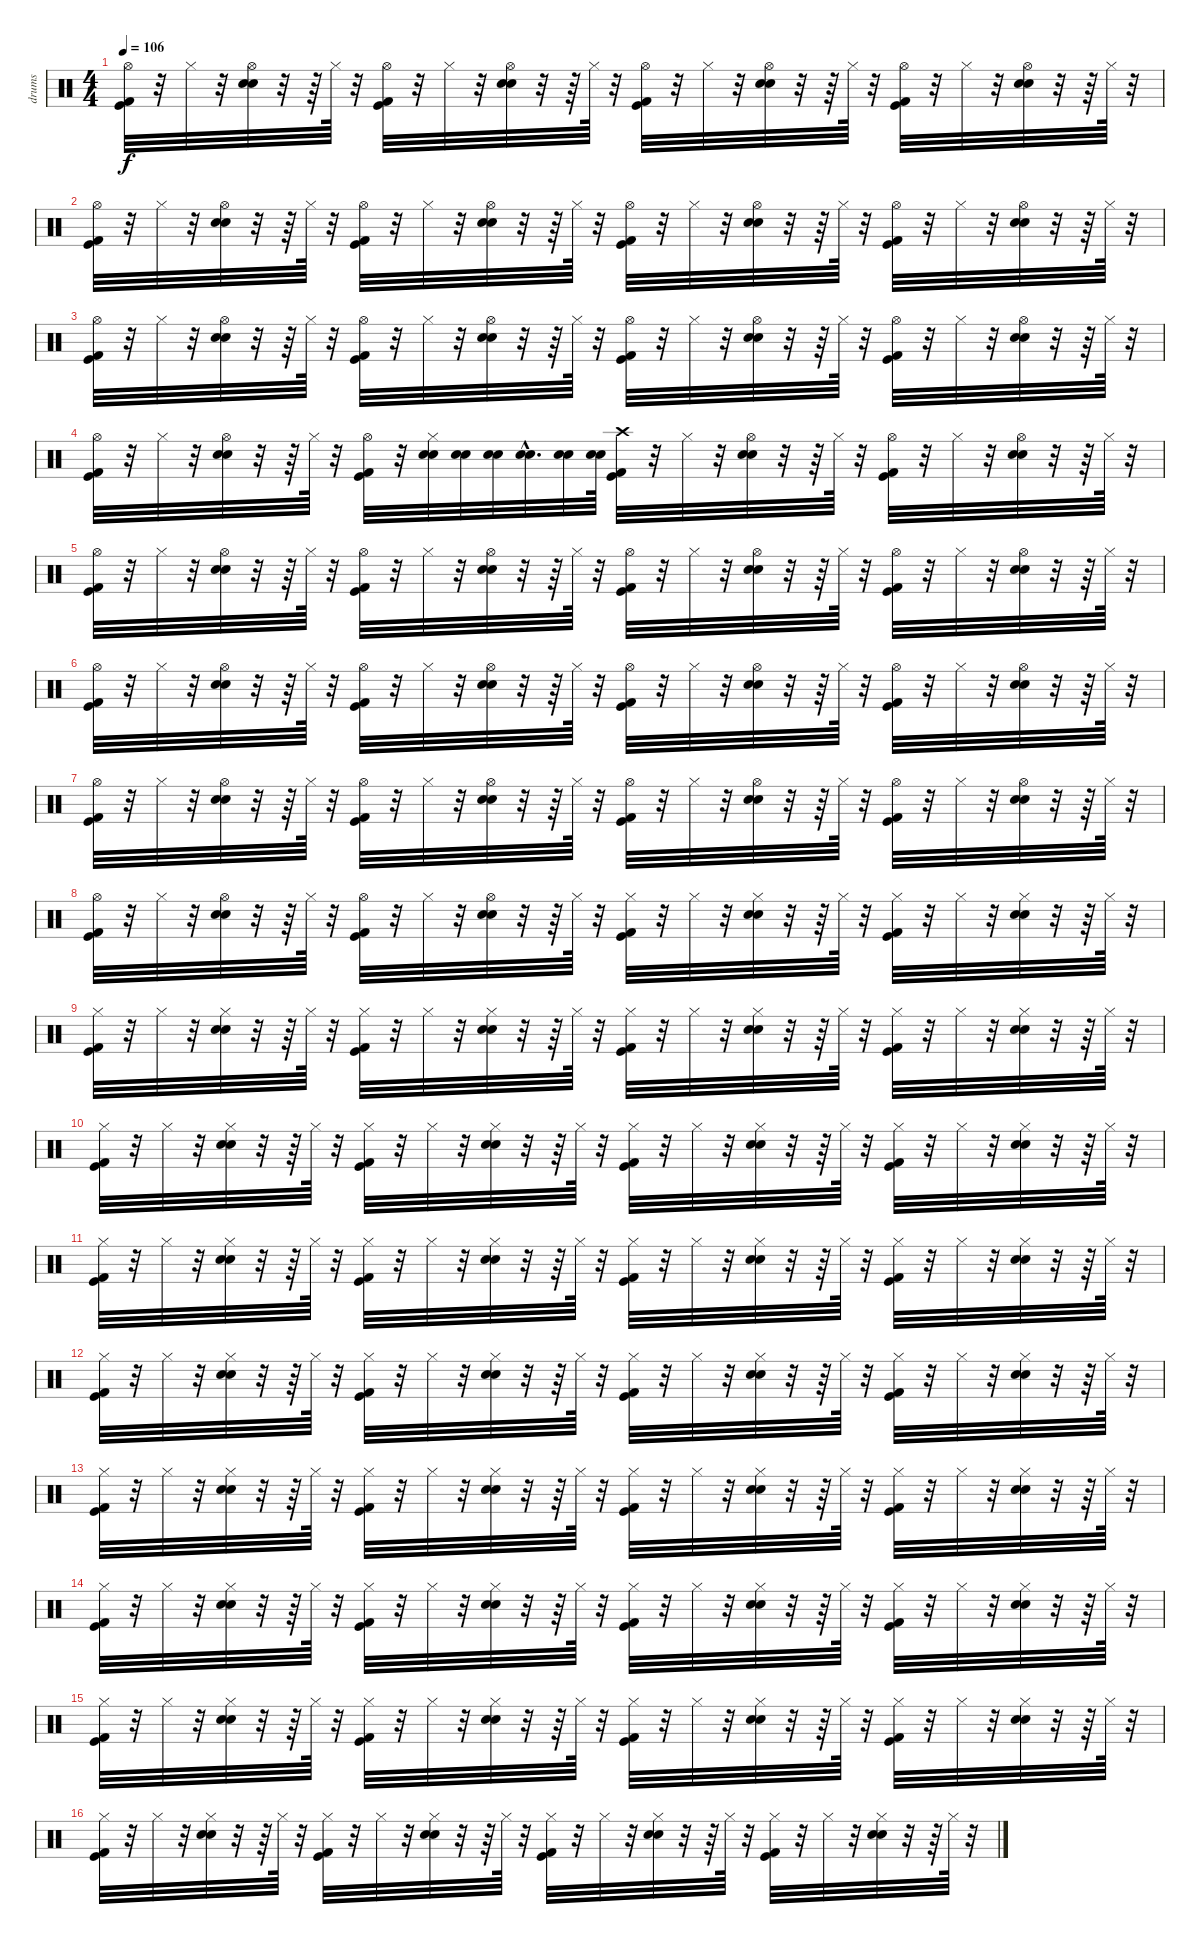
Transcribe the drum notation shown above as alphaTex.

\track ("drums" "drums") {instrument percussion}
\staff {score}
\articulation defaults
\ts (4 4)
\tempo 106
\clef neutral
\ks c
("Kick (hit) 2" "Kick (hit)" "Hi-Hat (open)").32{dy f} r.32 "Hi-Hat (closed)".32 r.32 ("Electric Snare (hit)" "Snare (hit) 2" "Hi-Hat (open)").32 r.32 r.64 "Hi-Hat (closed)".64 r.32 ("Kick (hit) 2" "Kick (hit)" "Hi-Hat (open)").32 r.32 "Hi-Hat (closed)".32 r.32 ("Electric Snare (hit)" "Snare (hit) 2" "Hi-Hat (open)").32 r.32 r.64 "Hi-Hat (closed)".64 r.32 ("Hi-Hat (open)" "Kick (hit)" "Kick (hit) 2").32 r.32 "Hi-Hat (closed)".32 r.32 ("Electric Snare (hit)" "Snare (hit) 2" "Hi-Hat (open)").32 r.32 r.64 "Hi-Hat (closed)".64 r.32 ("Kick (hit) 2" "Kick (hit)" "Hi-Hat (open)").32 r.32 "Hi-Hat (closed)".32 r.32 ("Electric Snare (hit)" "Snare (hit) 2" "Hi-Hat (open)").32 r.32 r.64 "Hi-Hat (closed)".64 r.32 |
("Kick (hit) 2" "Kick (hit)" "Hi-Hat (open)").32 r.32 "Hi-Hat (closed)".32 r.32 ("Electric Snare (hit)" "Snare (hit) 2" "Hi-Hat (open)").32 r.32 r.64 "Hi-Hat (closed)".64 r.32 ("Kick (hit) 2" "Kick (hit)" "Hi-Hat (open)").32 r.32 "Hi-Hat (closed)".32 r.32 ("Electric Snare (hit)" "Snare (hit) 2" "Hi-Hat (open)").32 r.32 r.64 "Hi-Hat (closed)".64 r.32 ("Hi-Hat (open)" "Kick (hit)" "Kick (hit) 2").32 r.32 "Hi-Hat (closed)".32 r.32 ("Electric Snare (hit)" "Snare (hit) 2" "Hi-Hat (open)").32 r.32 r.64 "Hi-Hat (closed)".64 r.32 ("Kick (hit) 2" "Kick (hit)" "Hi-Hat (open)").32 r.32 "Hi-Hat (closed)".32 r.32 ("Electric Snare (hit)" "Snare (hit) 2" "Hi-Hat (open)").32 r.32 r.64 "Hi-Hat (closed)".64 r.32 |
("Kick (hit) 2" "Kick (hit)" "Hi-Hat (open)").32 r.32 "Hi-Hat (closed)".32 r.32 ("Electric Snare (hit)" "Snare (hit) 2" "Hi-Hat (open)").32 r.32 r.64 "Hi-Hat (closed)".64 r.32 ("Kick (hit) 2" "Kick (hit)" "Hi-Hat (open)").32 r.32 "Hi-Hat (closed)".32 r.32 ("Electric Snare (hit)" "Snare (hit) 2" "Hi-Hat (open)").32 r.32 r.64 "Hi-Hat (closed)".64 r.32 ("Hi-Hat (open)" "Kick (hit)" "Kick (hit) 2").32 r.32 "Hi-Hat (closed)".32 r.32 ("Electric Snare (hit)" "Snare (hit) 2" "Hi-Hat (open)").32 r.32 r.64 "Hi-Hat (closed)".64 r.32 ("Kick (hit) 2" "Kick (hit)" "Hi-Hat (open)").32 r.32 "Hi-Hat (closed)".32 r.32 ("Electric Snare (hit)" "Snare (hit) 2" "Hi-Hat (open)").32 r.32 r.64 "Hi-Hat (closed)".64 r.32 |
("Kick (hit) 2" "Kick (hit)" "Hi-Hat (open)").32 r.32 "Hi-Hat (closed)".32 r.32 ("Electric Snare (hit)" "Snare (hit) 2" "Hi-Hat (open)").32 r.32 r.64 "Hi-Hat (closed)".64 r.32 ("Kick (hit) 2" "Kick (hit)" "Hi-Hat (open)").32 r.32 ("Hi-Hat (closed)" "Snare (hit) 2" "Electric Snare (hit)").32 ("Electric Snare (hit)" "Snare (hit) 2").32 ("Electric Snare (hit)" "Snare (hit) 2").32 ("Snare (hit) 2"{hac} "Electric Snare (hit)"{hac}).32{d} ("Electric Snare (hit)" "Snare (hit) 2").32 ("Electric Snare (hit)" "Snare (hit) 2").64 ("Kick (hit)" "Kick (hit) 2" "Crash high (hit)").32 r.32 "Hi-Hat (closed)".32 r.32 ("Electric Snare (hit)" "Snare (hit) 2" "Hi-Hat (open)").32 r.32 r.64 "Hi-Hat (closed)".64 r.32 ("Kick (hit) 2" "Kick (hit)" "Hi-Hat (open)").32 r.32 "Hi-Hat (closed)".32 r.32 ("Electric Snare (hit)" "Snare (hit) 2" "Hi-Hat (open)").32 r.32 r.64 "Hi-Hat (closed)".64 r.32 |
("Kick (hit) 2" "Kick (hit)" "Hi-Hat (open)").32 r.32 "Hi-Hat (closed)".32 r.32 ("Electric Snare (hit)" "Snare (hit) 2" "Hi-Hat (open)").32 r.32 r.64 "Hi-Hat (closed)".64 r.32 ("Kick (hit) 2" "Kick (hit)" "Hi-Hat (open)").32 r.32 "Hi-Hat (closed)".32 r.32 ("Electric Snare (hit)" "Snare (hit) 2" "Hi-Hat (open)").32 r.32 r.64 "Hi-Hat (closed)".64 r.32 ("Hi-Hat (open)" "Kick (hit)" "Kick (hit) 2").32 r.32 "Hi-Hat (closed)".32 r.32 ("Electric Snare (hit)" "Snare (hit) 2" "Hi-Hat (open)").32 r.32 r.64 "Hi-Hat (closed)".64 r.32 ("Kick (hit) 2" "Kick (hit)" "Hi-Hat (open)").32 r.32 "Hi-Hat (closed)".32 r.32 ("Electric Snare (hit)" "Snare (hit) 2" "Hi-Hat (open)").32 r.32 r.64 "Hi-Hat (closed)".64 r.32 |
("Kick (hit) 2" "Kick (hit)" "Hi-Hat (open)").32 r.32 "Hi-Hat (closed)".32 r.32 ("Electric Snare (hit)" "Snare (hit) 2" "Hi-Hat (open)").32 r.32 r.64 "Hi-Hat (closed)".64 r.32 ("Kick (hit) 2" "Kick (hit)" "Hi-Hat (open)").32 r.32 "Hi-Hat (closed)".32 r.32 ("Electric Snare (hit)" "Snare (hit) 2" "Hi-Hat (open)").32 r.32 r.64 "Hi-Hat (closed)".64 r.32 ("Hi-Hat (open)" "Kick (hit)" "Kick (hit) 2").32 r.32 "Hi-Hat (closed)".32 r.32 ("Electric Snare (hit)" "Snare (hit) 2" "Hi-Hat (open)").32 r.32 r.64 "Hi-Hat (closed)".64 r.32 ("Kick (hit) 2" "Kick (hit)" "Hi-Hat (open)").32 r.32 "Hi-Hat (closed)".32 r.32 ("Electric Snare (hit)" "Snare (hit) 2" "Hi-Hat (open)").32 r.32 r.64 "Hi-Hat (closed)".64 r.32 |
("Kick (hit) 2" "Kick (hit)" "Hi-Hat (open)").32 r.32 "Hi-Hat (closed)".32 r.32 ("Electric Snare (hit)" "Snare (hit) 2" "Hi-Hat (open)").32 r.32 r.64 "Hi-Hat (closed)".64 r.32 ("Kick (hit) 2" "Kick (hit)" "Hi-Hat (open)").32 r.32 "Hi-Hat (closed)".32 r.32 ("Electric Snare (hit)" "Snare (hit) 2" "Hi-Hat (open)").32 r.32 r.64 "Hi-Hat (closed)".64 r.32 ("Hi-Hat (open)" "Kick (hit)" "Kick (hit) 2").32 r.32 "Hi-Hat (closed)".32 r.32 ("Electric Snare (hit)" "Snare (hit) 2" "Hi-Hat (open)").32 r.32 r.64 "Hi-Hat (closed)".64 r.32 ("Kick (hit) 2" "Kick (hit)" "Hi-Hat (open)").32 r.32 "Hi-Hat (closed)".32 r.32 ("Electric Snare (hit)" "Snare (hit) 2" "Hi-Hat (open)").32 r.32 r.64 "Hi-Hat (closed)".64 r.32 |
("Kick (hit) 2" "Kick (hit)" "Hi-Hat (open)").32 r.32 "Hi-Hat (closed)".32 r.32 ("Electric Snare (hit)" "Snare (hit) 2" "Hi-Hat (open)").32 r.32 r.64 "Hi-Hat (closed)".64 r.32 ("Kick (hit) 2" "Kick (hit)" "Hi-Hat (open)").32 r.32 "Hi-Hat (closed)".32 r.32 ("Electric Snare (hit)" "Snare (hit) 2" "Hi-Hat (open)").32 r.32 r.64 "Hi-Hat (closed)".64 r.32 ("Kick (hit) 2" "Kick (hit)" "Hi-Hat (closed)").32 r.32 "Hi-Hat (closed)".32 r.32 ("Electric Snare (hit)" "Snare (hit) 2" "Hi-Hat (closed)").32 r.32 r.64 "Hi-Hat (closed)".64 r.32 ("Kick (hit) 2" "Kick (hit)" "Hi-Hat (closed)").32 r.32 "Hi-Hat (closed)".32 r.32 ("Electric Snare (hit)" "Snare (hit) 2" "Hi-Hat (closed)").32 r.32 r.64 "Hi-Hat (closed)".64 r.32 |
("Kick (hit) 2" "Kick (hit)" "Hi-Hat (closed)").32 r.32 "Hi-Hat (closed)".32 r.32 ("Electric Snare (hit)" "Snare (hit) 2" "Hi-Hat (closed)").32 r.32 r.64 "Hi-Hat (closed)".64 r.32 ("Kick (hit) 2" "Kick (hit)" "Hi-Hat (closed)").32 r.32 "Hi-Hat (closed)".32 r.32 ("Electric Snare (hit)" "Snare (hit) 2" "Hi-Hat (closed)").32 r.32 r.64 "Hi-Hat (closed)".64 r.32 ("Kick (hit) 2" "Kick (hit)" "Hi-Hat (closed)").32 r.32 "Hi-Hat (closed)".32 r.32 ("Electric Snare (hit)" "Snare (hit) 2" "Hi-Hat (closed)").32 r.32 r.64 "Hi-Hat (closed)".64 r.32 ("Kick (hit) 2" "Kick (hit)" "Hi-Hat (closed)").32 r.32 "Hi-Hat (closed)".32 r.32 ("Electric Snare (hit)" "Snare (hit) 2" "Hi-Hat (closed)").32 r.32 r.64 "Hi-Hat (closed)".64 r.32 |
("Kick (hit) 2" "Kick (hit)" "Hi-Hat (closed)").32 r.32 "Hi-Hat (closed)".32 r.32 ("Electric Snare (hit)" "Snare (hit) 2" "Hi-Hat (closed)").32 r.32 r.64 "Hi-Hat (closed)".64 r.32 ("Kick (hit) 2" "Kick (hit)" "Hi-Hat (closed)").32 r.32 "Hi-Hat (closed)".32 r.32 ("Electric Snare (hit)" "Snare (hit) 2" "Hi-Hat (closed)").32 r.32 r.64 "Hi-Hat (closed)".64 r.32 ("Kick (hit) 2" "Kick (hit)" "Hi-Hat (closed)").32 r.32 "Hi-Hat (closed)".32 r.32 ("Electric Snare (hit)" "Snare (hit) 2" "Hi-Hat (closed)").32 r.32 r.64 "Hi-Hat (closed)".64 r.32 ("Kick (hit) 2" "Kick (hit)" "Hi-Hat (closed)").32 r.32 "Hi-Hat (closed)".32 r.32 ("Electric Snare (hit)" "Snare (hit) 2" "Hi-Hat (closed)").32 r.32 r.64 "Hi-Hat (closed)".64 r.32 |
("Kick (hit) 2" "Kick (hit)" "Hi-Hat (closed)").32 r.32 "Hi-Hat (closed)".32 r.32 ("Electric Snare (hit)" "Snare (hit) 2" "Hi-Hat (closed)").32 r.32 r.64 "Hi-Hat (closed)".64 r.32 ("Kick (hit) 2" "Kick (hit)" "Hi-Hat (closed)").32 r.32 "Hi-Hat (closed)".32 r.32 ("Electric Snare (hit)" "Snare (hit) 2" "Hi-Hat (closed)").32 r.32 r.64 "Hi-Hat (closed)".64 r.32 ("Kick (hit) 2" "Kick (hit)" "Hi-Hat (closed)").32 r.32 "Hi-Hat (closed)".32 r.32 ("Electric Snare (hit)" "Snare (hit) 2" "Hi-Hat (closed)").32 r.32 r.64 "Hi-Hat (closed)".64 r.32 ("Kick (hit) 2" "Kick (hit)" "Hi-Hat (closed)").32 r.32 "Hi-Hat (closed)".32 r.32 ("Electric Snare (hit)" "Snare (hit) 2" "Hi-Hat (closed)").32 r.32 r.64 "Hi-Hat (closed)".64 r.32 |
("Kick (hit) 2" "Kick (hit)" "Hi-Hat (closed)").32 r.32 "Hi-Hat (closed)".32 r.32 ("Electric Snare (hit)" "Snare (hit) 2" "Hi-Hat (closed)").32 r.32 r.64 "Hi-Hat (closed)".64 r.32 ("Kick (hit) 2" "Kick (hit)" "Hi-Hat (closed)").32 r.32 "Hi-Hat (closed)".32 r.32 ("Electric Snare (hit)" "Snare (hit) 2" "Hi-Hat (closed)").32 r.32 r.64 "Hi-Hat (closed)".64 r.32 ("Kick (hit) 2" "Kick (hit)" "Hi-Hat (closed)").32 r.32 "Hi-Hat (closed)".32 r.32 ("Electric Snare (hit)" "Snare (hit) 2" "Hi-Hat (closed)").32 r.32 r.64 "Hi-Hat (closed)".64 r.32 ("Kick (hit) 2" "Kick (hit)" "Hi-Hat (closed)").32 r.32 "Hi-Hat (closed)".32 r.32 ("Electric Snare (hit)" "Snare (hit) 2" "Hi-Hat (closed)").32 r.32 r.64 "Hi-Hat (closed)".64 r.32 |
("Kick (hit) 2" "Kick (hit)" "Hi-Hat (closed)").32 r.32 "Hi-Hat (closed)".32 r.32 ("Electric Snare (hit)" "Snare (hit) 2" "Hi-Hat (closed)").32 r.32 r.64 "Hi-Hat (closed)".64 r.32 ("Kick (hit) 2" "Kick (hit)" "Hi-Hat (closed)").32 r.32 "Hi-Hat (closed)".32 r.32 ("Electric Snare (hit)" "Snare (hit) 2" "Hi-Hat (closed)").32 r.32 r.64 "Hi-Hat (closed)".64 r.32 ("Kick (hit) 2" "Kick (hit)" "Hi-Hat (closed)").32 r.32 "Hi-Hat (closed)".32 r.32 ("Electric Snare (hit)" "Snare (hit) 2" "Hi-Hat (closed)").32 r.32 r.64 "Hi-Hat (closed)".64 r.32 ("Kick (hit) 2" "Kick (hit)" "Hi-Hat (closed)").32 r.32 "Hi-Hat (closed)".32 r.32 ("Electric Snare (hit)" "Snare (hit) 2" "Hi-Hat (closed)").32 r.32 r.64 "Hi-Hat (closed)".64 r.32 |
("Kick (hit) 2" "Kick (hit)" "Hi-Hat (closed)").32 r.32 "Hi-Hat (closed)".32 r.32 ("Electric Snare (hit)" "Snare (hit) 2" "Hi-Hat (closed)").32 r.32 r.64 "Hi-Hat (closed)".64 r.32 ("Kick (hit) 2" "Kick (hit)" "Hi-Hat (closed)").32 r.32 "Hi-Hat (closed)".32 r.32 ("Electric Snare (hit)" "Snare (hit) 2" "Hi-Hat (closed)").32 r.32 r.64 "Hi-Hat (closed)".64 r.32 ("Kick (hit) 2" "Kick (hit)" "Hi-Hat (closed)").32 r.32 "Hi-Hat (closed)".32 r.32 ("Electric Snare (hit)" "Snare (hit) 2" "Hi-Hat (closed)").32 r.32 r.64 "Hi-Hat (closed)".64 r.32 ("Kick (hit) 2" "Kick (hit)" "Hi-Hat (closed)").32 r.32 "Hi-Hat (closed)".32 r.32 ("Electric Snare (hit)" "Snare (hit) 2" "Hi-Hat (closed)").32 r.32 r.64 "Hi-Hat (closed)".64 r.32 |
("Kick (hit) 2" "Kick (hit)" "Hi-Hat (closed)").32 r.32 "Hi-Hat (closed)".32 r.32 ("Electric Snare (hit)" "Snare (hit) 2" "Hi-Hat (closed)").32 r.32 r.64 "Hi-Hat (closed)".64 r.32 ("Kick (hit) 2" "Kick (hit)" "Hi-Hat (closed)").32 r.32 "Hi-Hat (closed)".32 r.32 ("Electric Snare (hit)" "Snare (hit) 2" "Hi-Hat (closed)").32 r.32 r.64 "Hi-Hat (closed)".64 r.32 ("Kick (hit) 2" "Kick (hit)" "Hi-Hat (closed)").32 r.32 "Hi-Hat (closed)".32 r.32 ("Electric Snare (hit)" "Snare (hit) 2" "Hi-Hat (closed)").32 r.32 r.64 "Hi-Hat (closed)".64 r.32 ("Kick (hit) 2" "Kick (hit)" "Hi-Hat (closed)").32 r.32 "Hi-Hat (closed)".32 r.32 ("Electric Snare (hit)" "Snare (hit) 2" "Hi-Hat (closed)").32 r.32 r.64 "Hi-Hat (closed)".64 r.32 |
("Kick (hit) 2" "Kick (hit)" "Hi-Hat (closed)").32 r.32 "Hi-Hat (closed)".32 r.32 ("Electric Snare (hit)" "Snare (hit) 2" "Hi-Hat (closed)").32 r.32 r.64 "Hi-Hat (closed)".64 r.32 ("Kick (hit) 2" "Kick (hit)" "Hi-Hat (closed)").32 r.32 "Hi-Hat (closed)".32 r.32 ("Electric Snare (hit)" "Snare (hit) 2" "Hi-Hat (closed)").32 r.32 r.64 "Hi-Hat (closed)".64 r.32 ("Kick (hit) 2" "Kick (hit)" "Hi-Hat (closed)").32 r.32 "Hi-Hat (closed)".32 r.32 ("Electric Snare (hit)" "Snare (hit) 2" "Hi-Hat (closed)").32 r.32 r.64 "Hi-Hat (closed)".64 r.32 ("Kick (hit) 2" "Kick (hit)" "Hi-Hat (closed)").32 r.32 "Hi-Hat (closed)".32 r.32 ("Electric Snare (hit)" "Snare (hit) 2" "Hi-Hat (closed)").32 r.32 r.64 "Hi-Hat (closed)".64 r.32
